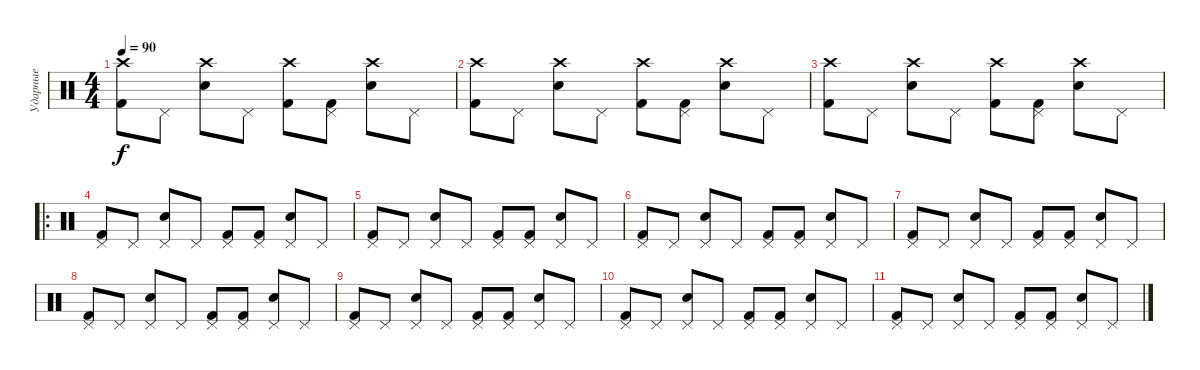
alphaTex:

\track ("Ударные" "Ударные") {instrument percussion}
\staff {score}
\articulation defaults
\ts (4 4)
\tempo 90
\clef neutral
\ks c
("Crash high (hit)" "Kick (hit) 2").8{dy f} "Pedal Hi-Hat (hit)".8 ("Crash high (hit)" "Snare (hit) 2").8 "Pedal Hi-Hat (hit)".8 ("Crash high (hit)" "Kick (hit) 2").8 ("Pedal Hi-Hat (hit)" "Kick (hit) 2").8 ("Crash high (hit)" "Snare (hit) 2").8 "Pedal Hi-Hat (hit)".8 |
("Crash high (hit)" "Kick (hit) 2").8 "Pedal Hi-Hat (hit)".8 ("Crash high (hit)" "Snare (hit) 2").8 "Pedal Hi-Hat (hit)".8 ("Crash high (hit)" "Kick (hit) 2").8 ("Pedal Hi-Hat (hit)" "Kick (hit) 2").8 ("Crash high (hit)" "Snare (hit) 2").8 "Pedal Hi-Hat (hit)".8 |
("Crash high (hit)" "Kick (hit) 2").8 "Pedal Hi-Hat (hit)".8 ("Crash high (hit)" "Snare (hit) 2").8 "Pedal Hi-Hat (hit)".8 ("Crash high (hit)" "Kick (hit) 2").8 ("Pedal Hi-Hat (hit)" "Kick (hit) 2").8 ("Crash high (hit)" "Snare (hit) 2").8 "Pedal Hi-Hat (hit)".8 |
\ro
("Pedal Hi-Hat (hit)" "Kick (hit) 2").8 "Pedal Hi-Hat (hit)".8 ("Pedal Hi-Hat (hit)" "Snare (hit) 2").8 "Pedal Hi-Hat (hit)".8 ("Pedal Hi-Hat (hit)" "Kick (hit) 2").8 ("Pedal Hi-Hat (hit)" "Kick (hit) 2").8 ("Pedal Hi-Hat (hit)" "Snare (hit) 2").8 "Pedal Hi-Hat (hit)".8 |
("Pedal Hi-Hat (hit)" "Kick (hit) 2").8 "Pedal Hi-Hat (hit)".8 ("Pedal Hi-Hat (hit)" "Snare (hit) 2").8 "Pedal Hi-Hat (hit)".8 ("Pedal Hi-Hat (hit)" "Kick (hit) 2").8 ("Pedal Hi-Hat (hit)" "Kick (hit) 2").8 ("Pedal Hi-Hat (hit)" "Snare (hit) 2").8 "Pedal Hi-Hat (hit)".8 |
("Pedal Hi-Hat (hit)" "Kick (hit) 2").8 "Pedal Hi-Hat (hit)".8 ("Pedal Hi-Hat (hit)" "Snare (hit) 2").8 "Pedal Hi-Hat (hit)".8 ("Pedal Hi-Hat (hit)" "Kick (hit) 2").8 ("Pedal Hi-Hat (hit)" "Kick (hit) 2").8 ("Pedal Hi-Hat (hit)" "Snare (hit) 2").8 "Pedal Hi-Hat (hit)".8 |
("Pedal Hi-Hat (hit)" "Kick (hit) 2").8 "Pedal Hi-Hat (hit)".8 ("Pedal Hi-Hat (hit)" "Snare (hit) 2").8 "Pedal Hi-Hat (hit)".8 ("Pedal Hi-Hat (hit)" "Kick (hit) 2").8 ("Pedal Hi-Hat (hit)" "Kick (hit) 2").8 ("Pedal Hi-Hat (hit)" "Snare (hit) 2").8 "Pedal Hi-Hat (hit)".8 |
("Pedal Hi-Hat (hit)" "Kick (hit) 2").8 "Pedal Hi-Hat (hit)".8 ("Pedal Hi-Hat (hit)" "Snare (hit) 2").8 "Pedal Hi-Hat (hit)".8 ("Pedal Hi-Hat (hit)" "Kick (hit) 2").8 ("Pedal Hi-Hat (hit)" "Kick (hit) 2").8 ("Pedal Hi-Hat (hit)" "Snare (hit) 2").8 "Pedal Hi-Hat (hit)".8 |
("Pedal Hi-Hat (hit)" "Kick (hit) 2").8 "Pedal Hi-Hat (hit)".8 ("Pedal Hi-Hat (hit)" "Snare (hit) 2").8 "Pedal Hi-Hat (hit)".8 ("Pedal Hi-Hat (hit)" "Kick (hit) 2").8 ("Pedal Hi-Hat (hit)" "Kick (hit) 2").8 ("Pedal Hi-Hat (hit)" "Snare (hit) 2").8 "Pedal Hi-Hat (hit)".8 |
("Pedal Hi-Hat (hit)" "Kick (hit) 2").8 "Pedal Hi-Hat (hit)".8 ("Pedal Hi-Hat (hit)" "Snare (hit) 2").8 "Pedal Hi-Hat (hit)".8 ("Pedal Hi-Hat (hit)" "Kick (hit) 2").8 ("Pedal Hi-Hat (hit)" "Kick (hit) 2").8 ("Pedal Hi-Hat (hit)" "Snare (hit) 2").8 "Pedal Hi-Hat (hit)".8 |
("Pedal Hi-Hat (hit)" "Kick (hit) 2").8 "Pedal Hi-Hat (hit)".8 ("Pedal Hi-Hat (hit)" "Snare (hit) 2").8 "Pedal Hi-Hat (hit)".8 ("Pedal Hi-Hat (hit)" "Kick (hit) 2").8 ("Pedal Hi-Hat (hit)" "Kick (hit) 2").8 ("Pedal Hi-Hat (hit)" "Snare (hit) 2").8 "Pedal Hi-Hat (hit)".8
